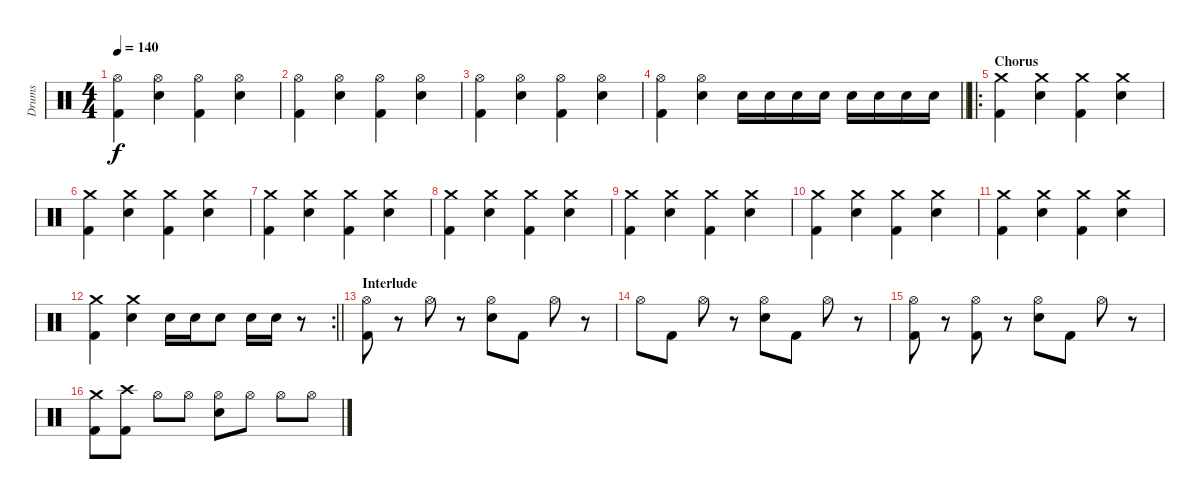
\track ("Drums" "Drums") {instrument percussion}
\staff {score}
\articulation defaults
\ts (4 4)
\tempo 140
\clef neutral
\ks c
("Hi-Hat (open)" "Kick (hit) 2").4{dy f} ("Hi-Hat (open)" "Snare (hit) 2").4 ("Hi-Hat (open)" "Kick (hit) 2").4 ("Hi-Hat (open)" "Snare (hit) 2").4 |
("Hi-Hat (open)" "Kick (hit) 2").4 ("Hi-Hat (open)" "Snare (hit) 2").4 ("Hi-Hat (open)" "Kick (hit) 2").4 ("Hi-Hat (open)" "Snare (hit) 2").4 |
("Hi-Hat (open)" "Kick (hit) 2").4 ("Hi-Hat (open)" "Snare (hit) 2").4 ("Hi-Hat (open)" "Kick (hit) 2").4 ("Hi-Hat (open)" "Snare (hit) 2").4 |
\barLineRight lightlight
("Hi-Hat (open)" "Kick (hit) 2").4 ("Hi-Hat (open)" "Snare (hit) 2").4 "Snare (hit) 2".16 "Snare (hit) 2".16 "Snare (hit) 2".16 "Snare (hit) 2".16 "Snare (hit) 2".16 "Snare (hit) 2".16 "Snare (hit) 2".16 "Snare (hit) 2".16 |
\ro
\section ("" "Chorus")
("Kick (hit) 2" "Crash medium (hit)").4 ("Crash medium (hit)" "Snare (hit) 2").4 ("Kick (hit) 2" "Crash medium (hit)").4 ("Crash medium (hit)" "Snare (hit) 2").4 |
("Kick (hit) 2" "Crash medium (hit)").4 ("Crash medium (hit)" "Snare (hit) 2").4 ("Kick (hit) 2" "Crash medium (hit)").4 ("Crash medium (hit)" "Snare (hit) 2").4 |
("Kick (hit) 2" "Crash medium (hit)").4 ("Crash medium (hit)" "Snare (hit) 2").4 ("Kick (hit) 2" "Crash medium (hit)").4 ("Crash medium (hit)" "Snare (hit) 2").4 |
("Kick (hit) 2" "Crash medium (hit)").4 ("Crash medium (hit)" "Snare (hit) 2").4 ("Kick (hit) 2" "Crash medium (hit)").4 ("Crash medium (hit)" "Snare (hit) 2").4 |
("Kick (hit) 2" "Crash medium (hit)").4 ("Crash medium (hit)" "Snare (hit) 2").4 ("Kick (hit) 2" "Crash medium (hit)").4 ("Crash medium (hit)" "Snare (hit) 2").4 |
("Kick (hit) 2" "Crash medium (hit)").4 ("Crash medium (hit)" "Snare (hit) 2").4 ("Kick (hit) 2" "Crash medium (hit)").4 ("Crash medium (hit)" "Snare (hit) 2").4 |
("Kick (hit) 2" "Crash medium (hit)").4 ("Crash medium (hit)" "Snare (hit) 2").4 ("Kick (hit) 2" "Crash medium (hit)").4 ("Crash medium (hit)" "Snare (hit) 2").4 |
\rc 2
\barLineRight lightlight
("Kick (hit) 2" "Crash medium (hit)").4 ("Crash medium (hit)" "Snare (hit) 2").4 "Snare (hit) 2".16 "Snare (hit) 2".16 "Snare (hit) 2".8 "Snare (hit) 2".16 "Snare (hit) 2".16 r.8 |
\section ("" "Interlude")
("Hi-Hat (open)" "Kick (hit) 2").8 r.8 "Hi-Hat (open)".8 r.8 ("Hi-Hat (open)" "Snare (hit) 2").8 "Kick (hit) 2".8 "Hi-Hat (open)".8 r.8 |
"Hi-Hat (open)".8 "Kick (hit) 2".8 "Hi-Hat (open)".8 r.8 ("Hi-Hat (open)" "Snare (hit) 2").8 "Kick (hit) 2".8 "Hi-Hat (open)".8 r.8 |
("Hi-Hat (open)" "Kick (hit) 2").8 r.8 ("Hi-Hat (open)" "Kick (hit) 2").8 r.8 ("Hi-Hat (open)" "Snare (hit) 2").8 "Kick (hit) 2".8 "Hi-Hat (open)".8 r.8 |
("Crash medium (hit)" "Kick (hit) 2").8 ("Crash high (hit)" "Kick (hit) 2").8 "Hi-Hat (open)".8 "Hi-Hat (open)".8 ("Hi-Hat (open)" "Snare (hit) 2").8 "Hi-Hat (open)".8 "Hi-Hat (open)".8 "Hi-Hat (open)".8
